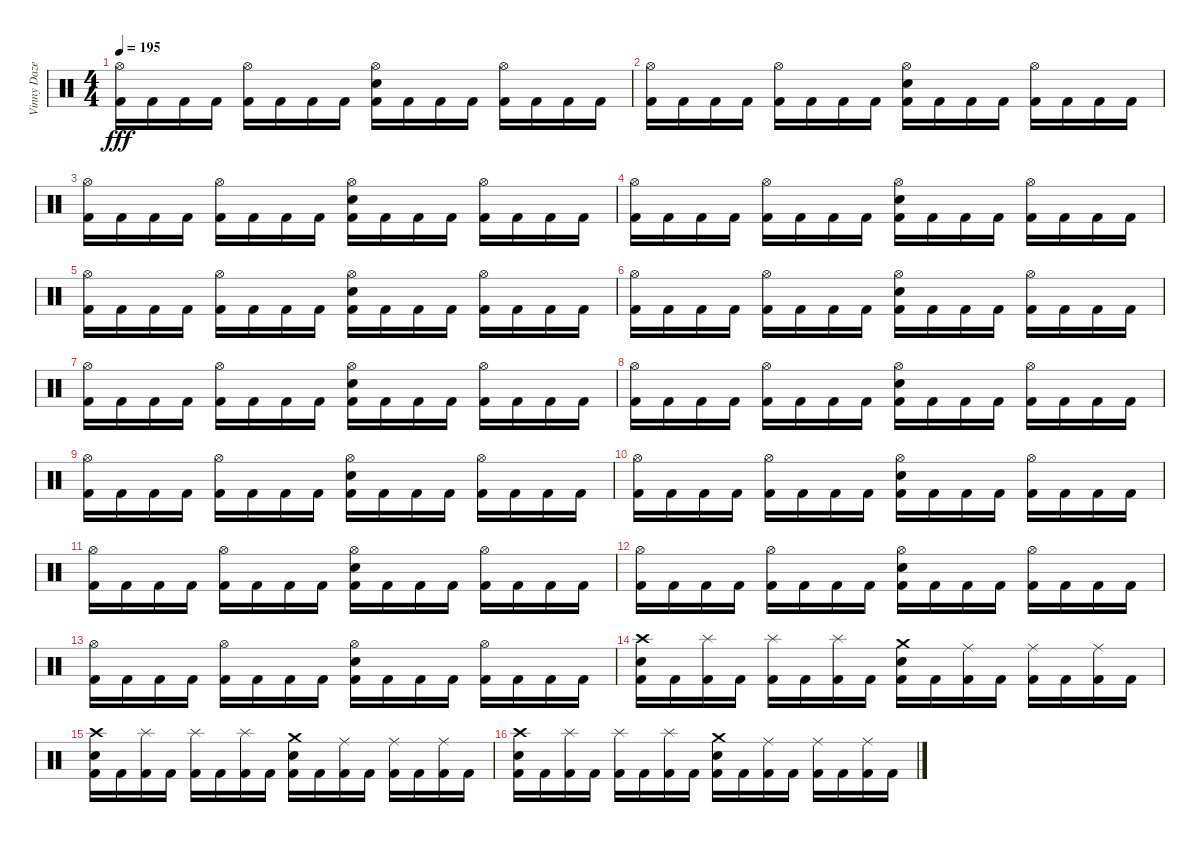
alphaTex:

\track ("Vinny Daze (R.I.P.)" "Vinny Daze") {instrument percussion}
\staff {score}
\articulation defaults
\ts (4 4)
\tempo 195
\clef neutral
\ks c
("Hi-Hat (open)" "Kick (hit) 2").16{dy fff} "Kick (hit) 2".16 "Kick (hit) 2".16 "Kick (hit) 2".16 ("Hi-Hat (open)" "Kick (hit) 2").16 "Kick (hit) 2".16 "Kick (hit) 2".16 "Kick (hit) 2".16 ("Hi-Hat (open)" "Electric Snare (hit)" "Kick (hit) 2").16 "Kick (hit) 2".16 "Kick (hit) 2".16 "Kick (hit) 2".16 ("Hi-Hat (open)" "Kick (hit) 2").16 "Kick (hit) 2".16 "Kick (hit) 2".16 "Kick (hit) 2".16 |
("Hi-Hat (open)" "Kick (hit) 2").16 "Kick (hit) 2".16 "Kick (hit) 2".16 "Kick (hit) 2".16 ("Hi-Hat (open)" "Kick (hit) 2").16 "Kick (hit) 2".16 "Kick (hit) 2".16 "Kick (hit) 2".16 ("Hi-Hat (open)" "Electric Snare (hit)" "Kick (hit) 2").16 "Kick (hit) 2".16 "Kick (hit) 2".16 "Kick (hit) 2".16 ("Hi-Hat (open)" "Kick (hit) 2").16 "Kick (hit) 2".16 "Kick (hit) 2".16 "Kick (hit) 2".16 |
("Hi-Hat (open)" "Kick (hit) 2").16 "Kick (hit) 2".16 "Kick (hit) 2".16 "Kick (hit) 2".16 ("Hi-Hat (open)" "Kick (hit) 2").16 "Kick (hit) 2".16 "Kick (hit) 2".16 "Kick (hit) 2".16 ("Hi-Hat (open)" "Electric Snare (hit)" "Kick (hit) 2").16 "Kick (hit) 2".16 "Kick (hit) 2".16 "Kick (hit) 2".16 ("Hi-Hat (open)" "Kick (hit) 2").16 "Kick (hit) 2".16 "Kick (hit) 2".16 "Kick (hit) 2".16 |
("Hi-Hat (open)" "Kick (hit) 2").16 "Kick (hit) 2".16 "Kick (hit) 2".16 "Kick (hit) 2".16 ("Hi-Hat (open)" "Kick (hit) 2").16 "Kick (hit) 2".16 "Kick (hit) 2".16 "Kick (hit) 2".16 ("Hi-Hat (open)" "Electric Snare (hit)" "Kick (hit) 2").16 "Kick (hit) 2".16 "Kick (hit) 2".16 "Kick (hit) 2".16 ("Hi-Hat (open)" "Kick (hit) 2").16 "Kick (hit) 2".16 "Kick (hit) 2".16 "Kick (hit) 2".16 |
("Hi-Hat (open)" "Kick (hit) 2").16 "Kick (hit) 2".16 "Kick (hit) 2".16 "Kick (hit) 2".16 ("Hi-Hat (open)" "Kick (hit) 2").16 "Kick (hit) 2".16 "Kick (hit) 2".16 "Kick (hit) 2".16 ("Hi-Hat (open)" "Electric Snare (hit)" "Kick (hit) 2").16 "Kick (hit) 2".16 "Kick (hit) 2".16 "Kick (hit) 2".16 ("Hi-Hat (open)" "Kick (hit) 2").16 "Kick (hit) 2".16 "Kick (hit) 2".16 "Kick (hit) 2".16 |
("Hi-Hat (open)" "Kick (hit) 2").16 "Kick (hit) 2".16 "Kick (hit) 2".16 "Kick (hit) 2".16 ("Hi-Hat (open)" "Kick (hit) 2").16 "Kick (hit) 2".16 "Kick (hit) 2".16 "Kick (hit) 2".16 ("Hi-Hat (open)" "Electric Snare (hit)" "Kick (hit) 2").16 "Kick (hit) 2".16 "Kick (hit) 2".16 "Kick (hit) 2".16 ("Hi-Hat (open)" "Kick (hit) 2").16 "Kick (hit) 2".16 "Kick (hit) 2".16 "Kick (hit) 2".16 |
("Hi-Hat (open)" "Kick (hit) 2").16 "Kick (hit) 2".16 "Kick (hit) 2".16 "Kick (hit) 2".16 ("Hi-Hat (open)" "Kick (hit) 2").16 "Kick (hit) 2".16 "Kick (hit) 2".16 "Kick (hit) 2".16 ("Hi-Hat (open)" "Electric Snare (hit)" "Kick (hit) 2").16 "Kick (hit) 2".16 "Kick (hit) 2".16 "Kick (hit) 2".16 ("Hi-Hat (open)" "Kick (hit) 2").16 "Kick (hit) 2".16 "Kick (hit) 2".16 "Kick (hit) 2".16 |
("Hi-Hat (open)" "Kick (hit) 2").16 "Kick (hit) 2".16 "Kick (hit) 2".16 "Kick (hit) 2".16 ("Hi-Hat (open)" "Kick (hit) 2").16 "Kick (hit) 2".16 "Kick (hit) 2".16 "Kick (hit) 2".16 ("Hi-Hat (open)" "Electric Snare (hit)" "Kick (hit) 2").16 "Kick (hit) 2".16 "Kick (hit) 2".16 "Kick (hit) 2".16 ("Hi-Hat (open)" "Kick (hit) 2").16 "Kick (hit) 2".16 "Kick (hit) 2".16 "Kick (hit) 2".16 |
("Hi-Hat (open)" "Kick (hit) 2").16 "Kick (hit) 2".16 "Kick (hit) 2".16 "Kick (hit) 2".16 ("Hi-Hat (open)" "Kick (hit) 2").16 "Kick (hit) 2".16 "Kick (hit) 2".16 "Kick (hit) 2".16 ("Hi-Hat (open)" "Electric Snare (hit)" "Kick (hit) 2").16 "Kick (hit) 2".16 "Kick (hit) 2".16 "Kick (hit) 2".16 ("Hi-Hat (open)" "Kick (hit) 2").16 "Kick (hit) 2".16 "Kick (hit) 2".16 "Kick (hit) 2".16 |
("Hi-Hat (open)" "Kick (hit) 2").16 "Kick (hit) 2".16 "Kick (hit) 2".16 "Kick (hit) 2".16 ("Hi-Hat (open)" "Kick (hit) 2").16 "Kick (hit) 2".16 "Kick (hit) 2".16 "Kick (hit) 2".16 ("Hi-Hat (open)" "Electric Snare (hit)" "Kick (hit) 2").16 "Kick (hit) 2".16 "Kick (hit) 2".16 "Kick (hit) 2".16 ("Hi-Hat (open)" "Kick (hit) 2").16 "Kick (hit) 2".16 "Kick (hit) 2".16 "Kick (hit) 2".16 |
("Hi-Hat (open)" "Kick (hit) 2").16 "Kick (hit) 2".16 "Kick (hit) 2".16 "Kick (hit) 2".16 ("Hi-Hat (open)" "Kick (hit) 2").16 "Kick (hit) 2".16 "Kick (hit) 2".16 "Kick (hit) 2".16 ("Hi-Hat (open)" "Electric Snare (hit)" "Kick (hit) 2").16 "Kick (hit) 2".16 "Kick (hit) 2".16 "Kick (hit) 2".16 ("Hi-Hat (open)" "Kick (hit) 2").16 "Kick (hit) 2".16 "Kick (hit) 2".16 "Kick (hit) 2".16 |
("Hi-Hat (open)" "Kick (hit) 2").16 "Kick (hit) 2".16 "Kick (hit) 2".16 "Kick (hit) 2".16 ("Hi-Hat (open)" "Kick (hit) 2").16 "Kick (hit) 2".16 "Kick (hit) 2".16 "Kick (hit) 2".16 ("Hi-Hat (open)" "Electric Snare (hit)" "Kick (hit) 2").16 "Kick (hit) 2".16 "Kick (hit) 2".16 "Kick (hit) 2".16 ("Hi-Hat (open)" "Kick (hit) 2").16 "Kick (hit) 2".16 "Kick (hit) 2".16 "Kick (hit) 2".16 |
("Hi-Hat (open)" "Kick (hit) 2").16 "Kick (hit) 2".16 "Kick (hit) 2".16 "Kick (hit) 2".16 ("Hi-Hat (open)" "Kick (hit) 2").16 "Kick (hit) 2".16 "Kick (hit) 2".16 "Kick (hit) 2".16 ("Hi-Hat (open)" "Electric Snare (hit)" "Kick (hit) 2").16 "Kick (hit) 2".16 "Kick (hit) 2".16 "Kick (hit) 2".16 ("Hi-Hat (open)" "Kick (hit) 2").16 "Kick (hit) 2".16 "Kick (hit) 2".16 "Kick (hit) 2".16 |
("Crash high (hit)" "Electric Snare (hit)" "Kick (hit) 2").16 "Kick (hit) 2".16 ("Splash (hit)" "Kick (hit) 2").16 "Kick (hit) 2".16 ("Splash (hit)" "Kick (hit) 2").16 "Kick (hit) 2".16 ("Splash (hit)" "Kick (hit) 2").16 "Kick (hit) 2".16 ("Crash medium (hit)" "Electric Snare (hit)" "Kick (hit) 2").16 "Kick (hit) 2".16 ("Ride (middle)" "Kick (hit) 2").16 "Kick (hit) 2".16 ("Ride (middle)" "Kick (hit) 2").16 "Kick (hit) 2".16 ("Ride (middle)" "Kick (hit) 2").16 "Kick (hit) 2".16 |
("Crash high (hit)" "Electric Snare (hit)" "Kick (hit) 2").16 "Kick (hit) 2".16 ("Splash (hit)" "Kick (hit) 2").16 "Kick (hit) 2".16 ("Splash (hit)" "Kick (hit) 2").16 "Kick (hit) 2".16 ("Splash (hit)" "Kick (hit) 2").16 "Kick (hit) 2".16 ("Crash medium (hit)" "Electric Snare (hit)" "Kick (hit) 2").16 "Kick (hit) 2".16 ("Ride (middle)" "Kick (hit) 2").16 "Kick (hit) 2".16 ("Ride (middle)" "Kick (hit) 2").16 "Kick (hit) 2".16 ("Ride (middle)" "Kick (hit) 2").16 "Kick (hit) 2".16 |
("Crash high (hit)" "Electric Snare (hit)" "Kick (hit) 2").16 "Kick (hit) 2".16 ("Splash (hit)" "Kick (hit) 2").16 "Kick (hit) 2".16 ("Splash (hit)" "Kick (hit) 2").16 "Kick (hit) 2".16 ("Splash (hit)" "Kick (hit) 2").16 "Kick (hit) 2".16 ("Crash medium (hit)" "Electric Snare (hit)" "Kick (hit) 2").16 "Kick (hit) 2".16 ("Ride (middle)" "Kick (hit) 2").16 "Kick (hit) 2".16 ("Ride (middle)" "Kick (hit) 2").16 "Kick (hit) 2".16 ("Ride (middle)" "Kick (hit) 2").16 "Kick (hit) 2".16
